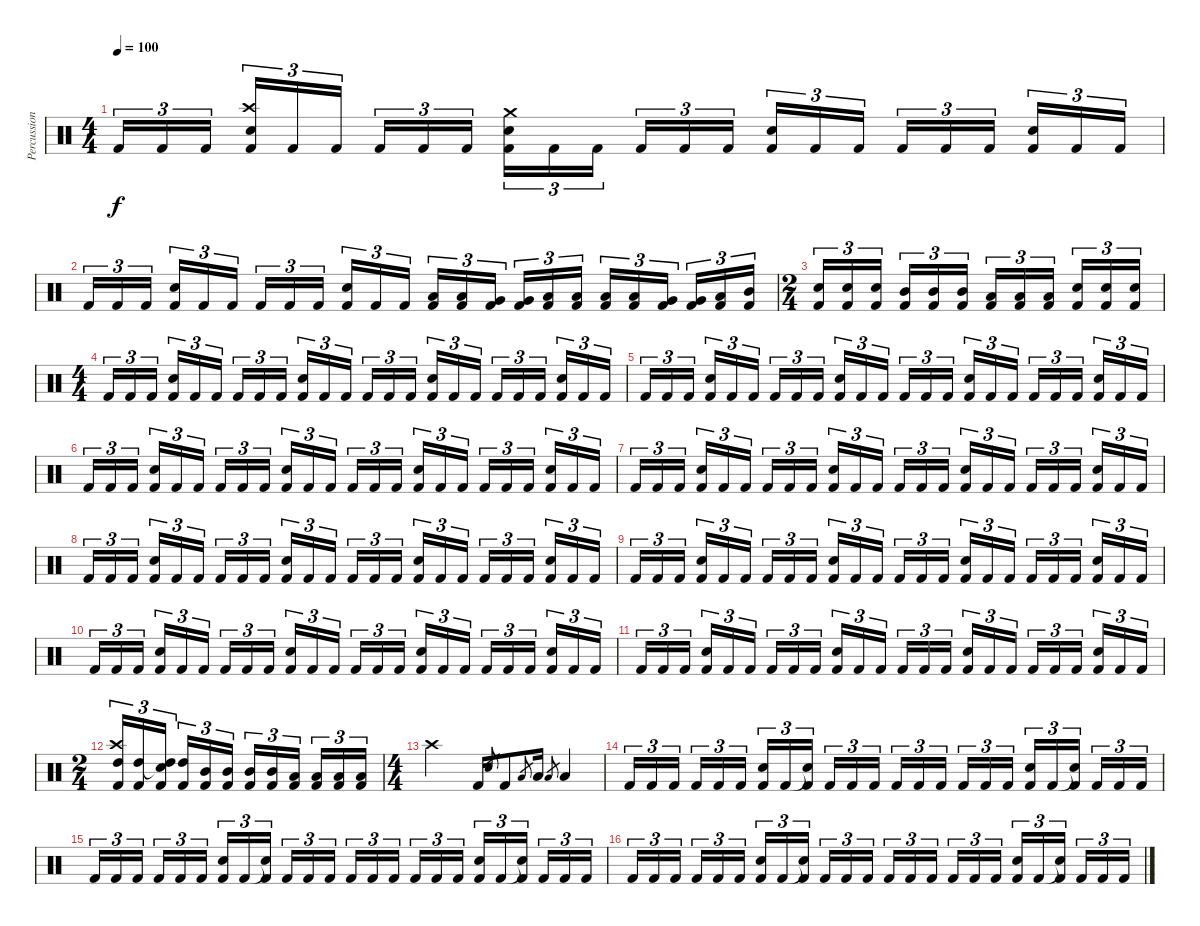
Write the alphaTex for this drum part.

\track ("Percussions" "Percussion") {instrument percussion}
\staff {score}
\articulation defaults
\ts (4 4)
\tempo 100
\clef neutral
\ks c "Kick (hit) 2".16{tu (3 2) dy f} "Kick (hit) 2".16{tu (3 2)} "Kick (hit) 2".16{tu (3 2)}
("Crash high (hit)" "Electric Snare (hit)" "Kick (hit) 2").16{tu (3 2)} "Kick (hit) 2".16{tu (3 2)} "Kick (hit) 2".16{tu (3 2)} "Kick (hit) 2".16{tu (3 2)} "Kick (hit) 2".16{tu (3 2)} "Kick (hit) 2".16{tu (3 2)} ("Crash medium (hit)" "Electric Snare (hit)" "Kick (hit) 2").16{tu (3 2)} "Kick (hit) 2".16{tu (3 2)} "Kick (hit) 2".16{tu (3 2)} "Kick (hit) 2".16{tu (3 2)} "Kick (hit) 2".16{tu (3 2)} "Kick (hit) 2".16{tu (3 2)} ("Electric Snare (hit)" "Kick (hit) 2").16{tu (3 2)} "Kick (hit) 2".16{tu (3 2)} "Kick (hit) 2".16{tu (3 2)} "Kick (hit) 2".16{tu (3 2)} "Kick (hit) 2".16{tu (3 2)} "Kick (hit) 2".16{tu (3 2)} ("Electric Snare (hit)" "Kick (hit) 2").16{tu (3 2)} "Kick (hit) 2".16{tu (3 2)} "Kick (hit) 2".16{tu (3 2)} |
"Kick (hit) 2".16{tu (3 2)} "Kick (hit) 2".16{tu (3 2)} "Kick (hit) 2".16{tu (3 2)} ("Electric Snare (hit)" "Kick (hit) 2").16{tu (3 2)} "Kick (hit) 2".16{tu (3 2)} "Kick (hit) 2".16{tu (3 2)} "Kick (hit) 2".16{tu (3 2)} "Kick (hit) 2".16{tu (3 2)} "Kick (hit) 2".16{tu (3 2)} ("Electric Snare (hit)" "Kick (hit) 2").16{tu (3 2)} "Kick (hit) 2".16{tu (3 2)} "Kick (hit) 2".16{tu (3 2)} ("Low Tom (hit)" "Kick (hit) 2").16{tu (3 2)} ("Low Tom (hit)" "Kick (hit) 2").16{tu (3 2)} ("Very Low Tom (hit)" "Kick (hit) 2").16{tu (3 2)} ("Very Low Tom (hit)" "Kick (hit) 2").16{tu (3 2)} ("Low Floor Tom (hit)" "Kick (hit) 2").16{tu (3 2)} ("Low Floor Tom (hit)" "Kick (hit) 2").16{tu (3 2)} ("Low Tom (hit)" "Kick (hit) 2").16{tu (3 2)} ("Low Tom (hit)" "Kick (hit) 2").16{tu (3 2)} ("Very Low Tom (hit)" "Kick (hit) 2").16{tu (3 2)} ("Very Low Tom (hit)" "Kick (hit) 2").16{tu (3 2)} ("Low Floor Tom (hit)" "Kick (hit) 2").16{tu (3 2)} ("Mid Tom (hit)" "Kick (hit) 2").16{tu (3 2)} |
\ts (2 4)
("Electric Snare (hit)" "Kick (hit) 2").16{tu (3 2)} ("Electric Snare (hit)" "Kick (hit) 2").16{tu (3 2)} ("Electric Snare (hit)" "Kick (hit) 2").16{tu (3 2)} ("Mid Tom (hit)" "Kick (hit) 2").16{tu (3 2)} ("Mid Tom (hit)" "Kick (hit) 2").16{tu (3 2)} ("Mid Tom (hit)" "Kick (hit) 2").16{tu (3 2)} ("Low Tom (hit)" "Kick (hit) 2").16{tu (3 2)} ("Low Tom (hit)" "Kick (hit) 2").16{tu (3 2)} ("Low Tom (hit)" "Kick (hit) 2").16{tu (3 2)} ("Electric Snare (hit)" "Kick (hit) 2").16{tu (3 2)} ("Electric Snare (hit)" "Kick (hit) 2").16{tu (3 2)} ("Electric Snare (hit)" "Kick (hit) 2").16{tu (3 2)} |
\ts (4 4)
"Kick (hit) 2".16{tu (3 2)} "Kick (hit) 2".16{tu (3 2)} "Kick (hit) 2".16{tu (3 2)} ("Electric Snare (hit)" "Kick (hit) 2").16{tu (3 2)} "Kick (hit) 2".16{tu (3 2)} "Kick (hit) 2".16{tu (3 2)} "Kick (hit) 2".16{tu (3 2)} "Kick (hit) 2".16{tu (3 2)} "Kick (hit) 2".16{tu (3 2)} ("Electric Snare (hit)" "Kick (hit) 2").16{tu (3 2)} "Kick (hit) 2".16{tu (3 2)} "Kick (hit) 2".16{tu (3 2)} "Kick (hit) 2".16{tu (3 2)} "Kick (hit) 2".16{tu (3 2)} "Kick (hit) 2".16{tu (3 2)} ("Electric Snare (hit)" "Kick (hit) 2").16{tu (3 2)} "Kick (hit) 2".16{tu (3 2)} "Kick (hit) 2".16{tu (3 2)} "Kick (hit) 2".16{tu (3 2)} "Kick (hit) 2".16{tu (3 2)} "Kick (hit) 2".16{tu (3 2)} ("Electric Snare (hit)" "Kick (hit) 2").16{tu (3 2)} "Kick (hit) 2".16{tu (3 2)} "Kick (hit) 2".16{tu (3 2)} |
"Kick (hit) 2".16{tu (3 2)} "Kick (hit) 2".16{tu (3 2)} "Kick (hit) 2".16{tu (3 2)} ("Electric Snare (hit)" "Kick (hit) 2").16{tu (3 2)} "Kick (hit) 2".16{tu (3 2)} "Kick (hit) 2".16{tu (3 2)} "Kick (hit) 2".16{tu (3 2)} "Kick (hit) 2".16{tu (3 2)} "Kick (hit) 2".16{tu (3 2)} ("Electric Snare (hit)" "Kick (hit) 2").16{tu (3 2)} "Kick (hit) 2".16{tu (3 2)} "Kick (hit) 2".16{tu (3 2)} "Kick (hit) 2".16{tu (3 2)} "Kick (hit) 2".16{tu (3 2)} "Kick (hit) 2".16{tu (3 2)} ("Electric Snare (hit)" "Kick (hit) 2").16{tu (3 2)} "Kick (hit) 2".16{tu (3 2)} "Kick (hit) 2".16{tu (3 2)} "Kick (hit) 2".16{tu (3 2)} "Kick (hit) 2".16{tu (3 2)} "Kick (hit) 2".16{tu (3 2)} ("Electric Snare (hit)" "Kick (hit) 2").16{tu (3 2)} "Kick (hit) 2".16{tu (3 2)} "Kick (hit) 2".16{tu (3 2)} |
"Kick (hit) 2".16{tu (3 2)} "Kick (hit) 2".16{tu (3 2)} "Kick (hit) 2".16{tu (3 2)} ("Electric Snare (hit)" "Kick (hit) 2").16{tu (3 2)} "Kick (hit) 2".16{tu (3 2)} "Kick (hit) 2".16{tu (3 2)} "Kick (hit) 2".16{tu (3 2)} "Kick (hit) 2".16{tu (3 2)} "Kick (hit) 2".16{tu (3 2)} ("Electric Snare (hit)" "Kick (hit) 2").16{tu (3 2)} "Kick (hit) 2".16{tu (3 2)} "Kick (hit) 2".16{tu (3 2)} "Kick (hit) 2".16{tu (3 2)} "Kick (hit) 2".16{tu (3 2)} "Kick (hit) 2".16{tu (3 2)} ("Electric Snare (hit)" "Kick (hit) 2").16{tu (3 2)} "Kick (hit) 2".16{tu (3 2)} "Kick (hit) 2".16{tu (3 2)} "Kick (hit) 2".16{tu (3 2)} "Kick (hit) 2".16{tu (3 2)} "Kick (hit) 2".16{tu (3 2)} ("Electric Snare (hit)" "Kick (hit) 2").16{tu (3 2)} "Kick (hit) 2".16{tu (3 2)} "Kick (hit) 2".16{tu (3 2)} |
"Kick (hit) 2".16{tu (3 2)} "Kick (hit) 2".16{tu (3 2)} "Kick (hit) 2".16{tu (3 2)} ("Electric Snare (hit)" "Kick (hit) 2").16{tu (3 2)} "Kick (hit) 2".16{tu (3 2)} "Kick (hit) 2".16{tu (3 2)} "Kick (hit) 2".16{tu (3 2)} "Kick (hit) 2".16{tu (3 2)} "Kick (hit) 2".16{tu (3 2)} ("Electric Snare (hit)" "Kick (hit) 2").16{tu (3 2)} "Kick (hit) 2".16{tu (3 2)} "Kick (hit) 2".16{tu (3 2)} "Kick (hit) 2".16{tu (3 2)} "Kick (hit) 2".16{tu (3 2)} "Kick (hit) 2".16{tu (3 2)} ("Electric Snare (hit)" "Kick (hit) 2").16{tu (3 2)} "Kick (hit) 2".16{tu (3 2)} "Kick (hit) 2".16{tu (3 2)} "Kick (hit) 2".16{tu (3 2)} "Kick (hit) 2".16{tu (3 2)} "Kick (hit) 2".16{tu (3 2)} ("Electric Snare (hit)" "Kick (hit) 2").16{tu (3 2)} "Kick (hit) 2".16{tu (3 2)} "Kick (hit) 2".16{tu (3 2)} |
"Kick (hit) 2".16{tu (3 2)} "Kick (hit) 2".16{tu (3 2)} "Kick (hit) 2".16{tu (3 2)} ("Electric Snare (hit)" "Kick (hit) 2").16{tu (3 2)} "Kick (hit) 2".16{tu (3 2)} "Kick (hit) 2".16{tu (3 2)} "Kick (hit) 2".16{tu (3 2)} "Kick (hit) 2".16{tu (3 2)} "Kick (hit) 2".16{tu (3 2)} ("Electric Snare (hit)" "Kick (hit) 2").16{tu (3 2)} "Kick (hit) 2".16{tu (3 2)} "Kick (hit) 2".16{tu (3 2)} "Kick (hit) 2".16{tu (3 2)} "Kick (hit) 2".16{tu (3 2)} "Kick (hit) 2".16{tu (3 2)} ("Electric Snare (hit)" "Kick (hit) 2").16{tu (3 2)} "Kick (hit) 2".16{tu (3 2)} "Kick (hit) 2".16{tu (3 2)} "Kick (hit) 2".16{tu (3 2)} "Kick (hit) 2".16{tu (3 2)} "Kick (hit) 2".16{tu (3 2)} ("Electric Snare (hit)" "Kick (hit) 2").16{tu (3 2)} "Kick (hit) 2".16{tu (3 2)} "Kick (hit) 2".16{tu (3 2)} |
"Kick (hit) 2".16{tu (3 2)} "Kick (hit) 2".16{tu (3 2)} "Kick (hit) 2".16{tu (3 2)} ("Electric Snare (hit)" "Kick (hit) 2").16{tu (3 2)} "Kick (hit) 2".16{tu (3 2)} "Kick (hit) 2".16{tu (3 2)} "Kick (hit) 2".16{tu (3 2)} "Kick (hit) 2".16{tu (3 2)} "Kick (hit) 2".16{tu (3 2)} ("Electric Snare (hit)" "Kick (hit) 2").16{tu (3 2)} "Kick (hit) 2".16{tu (3 2)} "Kick (hit) 2".16{tu (3 2)} "Kick (hit) 2".16{tu (3 2)} "Kick (hit) 2".16{tu (3 2)} "Kick (hit) 2".16{tu (3 2)} ("Electric Snare (hit)" "Kick (hit) 2").16{tu (3 2)} "Kick (hit) 2".16{tu (3 2)} "Kick (hit) 2".16{tu (3 2)} "Kick (hit) 2".16{tu (3 2)} "Kick (hit) 2".16{tu (3 2)} "Kick (hit) 2".16{tu (3 2)} ("Electric Snare (hit)" "Kick (hit) 2").16{tu (3 2)} "Kick (hit) 2".16{tu (3 2)} "Kick (hit) 2".16{tu (3 2)} |
"Kick (hit) 2".16{tu (3 2)} "Kick (hit) 2".16{tu (3 2)} "Kick (hit) 2".16{tu (3 2)} ("Electric Snare (hit)" "Kick (hit) 2").16{tu (3 2)} "Kick (hit) 2".16{tu (3 2)} "Kick (hit) 2".16{tu (3 2)} "Kick (hit) 2".16{tu (3 2)} "Kick (hit) 2".16{tu (3 2)} "Kick (hit) 2".16{tu (3 2)} ("Electric Snare (hit)" "Kick (hit) 2").16{tu (3 2)} "Kick (hit) 2".16{tu (3 2)} "Kick (hit) 2".16{tu (3 2)} "Kick (hit) 2".16{tu (3 2)} "Kick (hit) 2".16{tu (3 2)} "Kick (hit) 2".16{tu (3 2)} ("Electric Snare (hit)" "Kick (hit) 2").16{tu (3 2)} "Kick (hit) 2".16{tu (3 2)} "Kick (hit) 2".16{tu (3 2)} "Kick (hit) 2".16{tu (3 2)} "Kick (hit) 2".16{tu (3 2)} "Kick (hit) 2".16{tu (3 2)} ("Electric Snare (hit)" "Kick (hit) 2").16{tu (3 2)} "Kick (hit) 2".16{tu (3 2)} "Kick (hit) 2".16{tu (3 2)} |
"Kick (hit) 2".16{tu (3 2)} "Kick (hit) 2".16{tu (3 2)} "Kick (hit) 2".16{tu (3 2)} ("Electric Snare (hit)" "Kick (hit) 2").16{tu (3 2)} "Kick (hit) 2".16{tu (3 2)} "Kick (hit) 2".16{tu (3 2)} "Kick (hit) 2".16{tu (3 2)} "Kick (hit) 2".16{tu (3 2)} "Kick (hit) 2".16{tu (3 2)} ("Electric Snare (hit)" "Kick (hit) 2").16{tu (3 2)} "Kick (hit) 2".16{tu (3 2)} "Kick (hit) 2".16{tu (3 2)} "Kick (hit) 2".16{tu (3 2)} "Kick (hit) 2".16{tu (3 2)} "Kick (hit) 2".16{tu (3 2)} ("Electric Snare (hit)" "Kick (hit) 2").16{tu (3 2)} "Kick (hit) 2".16{tu (3 2)} "Kick (hit) 2".16{tu (3 2)} "Kick (hit) 2".16{tu (3 2)} "Kick (hit) 2".16{tu (3 2)} "Kick (hit) 2".16{tu (3 2)} ("Electric Snare (hit)" "Kick (hit) 2").16{tu (3 2)} "Kick (hit) 2".16{tu (3 2)} "Kick (hit) 2".16{tu (3 2)} |
\ts (2 4)
("Crash high (hit)" "High Tom (hit)" "Kick (hit) 2").16{tu (3 2)} ("High Tom (hit)" "Kick (hit) 2").16{tu (3 2)} ("Snare (hit)"{t} "High Tom (hit)" "Kick (hit) 2").16{tu (3 2)} ("High Tom (hit)" "Kick (hit) 2").16{tu (3 2)} ("Mid Tom (hit)" "Kick (hit) 2").16{tu (3 2)} ("Mid Tom (hit)" "Kick (hit) 2").16{tu (3 2)} ("Mid Tom (hit)" "Kick (hit) 2").16{tu (3 2)} ("Mid Tom (hit)" "Kick (hit) 2").16{tu (3 2)} ("Low Tom (hit)" "Kick (hit) 2").16{tu (3 2)} ("Low Tom (hit)" "Kick (hit) 2").16{tu (3 2)} ("Low Tom (hit)" "Kick (hit) 2").16{tu (3 2)} ("Low Tom (hit)" "Kick (hit) 2").16{tu (3 2)} |
\ts (4 4)
"Crash high (hit)".2 "Kick (hit) 2".16 "Electric Snare (hit)".8{gr} "Kick (hit) 2".8 "Low Tom (hit)".8{gr} "Low Tom (hit)".16 "Low Tom (hit)".8{gr} "Low Tom (hit)".4 |
"Kick (hit) 2".16{tu (3 2)} "Kick (hit) 2".16{tu (3 2)} "Kick (hit) 2".16{tu (3 2)} "Kick (hit) 2".16{tu (3 2)} "Kick (hit) 2".16{tu (3 2)} "Kick (hit) 2".16{tu (3 2)} ("Snare (hit) 2" "Kick (hit) 2").16{tu (3 2)} "Kick (hit) 2".16{tu (3 2)} ("Snare (hit)"{t} "Kick (hit) 2").16{tu (3 2)} "Kick (hit) 2".16{tu (3 2)} "Kick (hit) 2".16{tu (3 2)} "Kick (hit) 2".16{tu (3 2)} "Kick (hit) 2".16{tu (3 2)} "Kick (hit) 2".16{tu (3 2)} "Kick (hit) 2".16{tu (3 2)} "Kick (hit) 2".16{tu (3 2)} "Kick (hit) 2".16{tu (3 2)} "Kick (hit) 2".16{tu (3 2)} ("Snare (hit) 2" "Kick (hit) 2").16{tu (3 2)} "Kick (hit) 2".16{tu (3 2)} ("Snare (hit)"{t} "Kick (hit) 2").16{tu (3 2)} "Kick (hit) 2".16{tu (3 2)} "Kick (hit) 2".16{tu (3 2)} "Kick (hit) 2".16{tu (3 2)} |
"Kick (hit) 2".16{tu (3 2)} "Kick (hit) 2".16{tu (3 2)} "Kick (hit) 2".16{tu (3 2)} "Kick (hit) 2".16{tu (3 2)} "Kick (hit) 2".16{tu (3 2)} "Kick (hit) 2".16{tu (3 2)} ("Snare (hit) 2" "Kick (hit) 2").16{tu (3 2)} "Kick (hit) 2".16{tu (3 2)} ("Snare (hit)"{t} "Kick (hit) 2").16{tu (3 2)} "Kick (hit) 2".16{tu (3 2)} "Kick (hit) 2".16{tu (3 2)} "Kick (hit) 2".16{tu (3 2)} "Kick (hit) 2".16{tu (3 2)} "Kick (hit) 2".16{tu (3 2)} "Kick (hit) 2".16{tu (3 2)} "Kick (hit) 2".16{tu (3 2)} "Kick (hit) 2".16{tu (3 2)} "Kick (hit) 2".16{tu (3 2)} ("Snare (hit) 2" "Kick (hit) 2").16{tu (3 2)} "Kick (hit) 2".16{tu (3 2)} ("Snare (hit)"{t} "Kick (hit) 2").16{tu (3 2)} "Kick (hit) 2".16{tu (3 2)} "Kick (hit) 2".16{tu (3 2)} "Kick (hit) 2".16{tu (3 2)} |
"Kick (hit) 2".16{tu (3 2)} "Kick (hit) 2".16{tu (3 2)} "Kick (hit) 2".16{tu (3 2)} "Kick (hit) 2".16{tu (3 2)} "Kick (hit) 2".16{tu (3 2)} "Kick (hit) 2".16{tu (3 2)} ("Snare (hit) 2" "Kick (hit) 2").16{tu (3 2)} "Kick (hit) 2".16{tu (3 2)} ("Snare (hit)"{t} "Kick (hit) 2").16{tu (3 2)} "Kick (hit) 2".16{tu (3 2)} "Kick (hit) 2".16{tu (3 2)} "Kick (hit) 2".16{tu (3 2)} "Kick (hit) 2".16{tu (3 2)} "Kick (hit) 2".16{tu (3 2)} "Kick (hit) 2".16{tu (3 2)} "Kick (hit) 2".16{tu (3 2)} "Kick (hit) 2".16{tu (3 2)} "Kick (hit) 2".16{tu (3 2)} ("Snare (hit) 2" "Kick (hit) 2").16{tu (3 2)} "Kick (hit) 2".16{tu (3 2)} ("Snare (hit)"{t} "Kick (hit) 2").16{tu (3 2)} "Kick (hit) 2".16{tu (3 2)} "Kick (hit) 2".16{tu (3 2)} "Kick (hit) 2".16{tu (3 2)}
